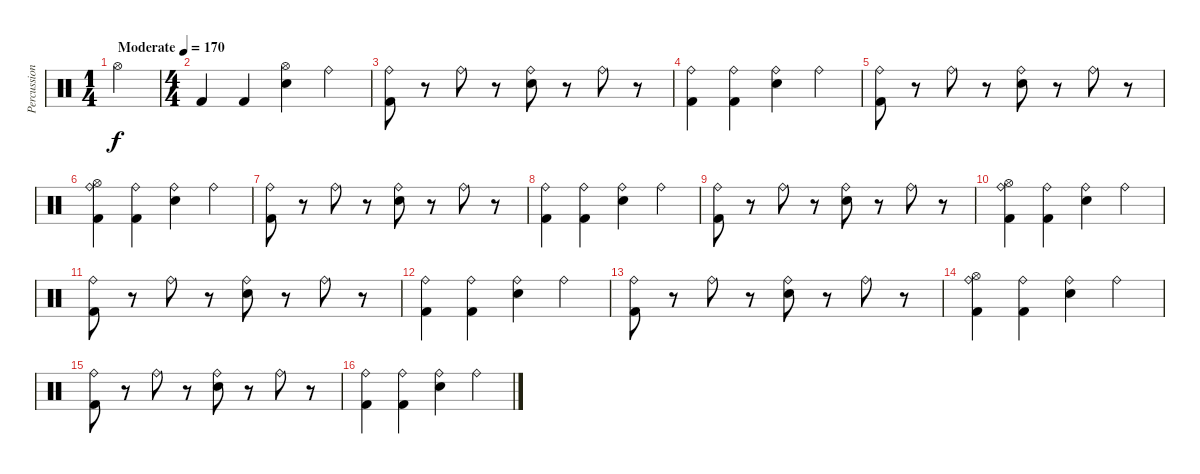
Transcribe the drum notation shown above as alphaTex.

\track ("Percussions" "Percussion") {instrument percussion}
\staff {score}
\articulation defaults
\ts (1 4)
\tempo (170 "Moderate")
\clef neutral
\ks c "Hi-Hat (open)".4{dy f}
|
\ts (4 4)
"Kick (hit) 2".4 "Kick (hit) 2".4 ("Hi-Hat (open)" "Electric Snare (hit)").4 "Ride (bell)".4 |
("Ride (bell)" "Kick (hit) 2").8 r.8 "Ride (bell)".8 r.8 ("Ride (bell)" "Electric Snare (hit)").8 r.8 "Ride (bell)".8 r.8 |
("Ride (bell)" "Kick (hit) 2").4 ("Ride (bell)" "Kick (hit) 2").4 ("Ride (bell)" "Electric Snare (hit)").4 "Ride (bell)".4 |
("Ride (bell)" "Kick (hit) 2").8 r.8 "Ride (bell)".8 r.8 ("Ride (bell)" "Electric Snare (hit)").8 r.8 "Ride (bell)".8 r.8 |
("Hi-Hat (open)" "Ride (bell)" "Kick (hit) 2").4 ("Ride (bell)" "Kick (hit) 2").4 ("Ride (bell)" "Electric Snare (hit)").4 "Ride (bell)".4 |
("Ride (bell)" "Kick (hit) 2").8 r.8 "Ride (bell)".8 r.8 ("Ride (bell)" "Electric Snare (hit)").8 r.8 "Ride (bell)".8 r.8 |
("Ride (bell)" "Kick (hit) 2").4 ("Ride (bell)" "Kick (hit) 2").4 ("Ride (bell)" "Electric Snare (hit)").4 "Ride (bell)".4 |
("Ride (bell)" "Kick (hit) 2").8 r.8 "Ride (bell)".8 r.8 ("Ride (bell)" "Electric Snare (hit)").8 r.8 "Ride (bell)".8 r.8 |
("Hi-Hat (open)" "Ride (bell)" "Kick (hit) 2").4 ("Ride (bell)" "Kick (hit) 2").4 ("Ride (bell)" "Electric Snare (hit)").4 "Ride (bell)".4 |
("Ride (bell)" "Kick (hit) 2").8 r.8 "Ride (bell)".8 r.8 ("Ride (bell)" "Electric Snare (hit)").8 r.8 "Ride (bell)".8 r.8 |
("Ride (bell)" "Kick (hit) 2").4 ("Ride (bell)" "Kick (hit) 2").4 ("Ride (bell)" "Electric Snare (hit)").4 "Ride (bell)".4 |
("Ride (bell)" "Kick (hit) 2").8 r.8 "Ride (bell)".8 r.8 ("Ride (bell)" "Electric Snare (hit)").8 r.8 "Ride (bell)".8 r.8 |
("Hi-Hat (open)" "Ride (bell)" "Kick (hit) 2").4 ("Ride (bell)" "Kick (hit) 2").4 ("Ride (bell)" "Electric Snare (hit)").4 "Ride (bell)".4 |
("Ride (bell)" "Kick (hit) 2").8 r.8 "Ride (bell)".8 r.8 ("Ride (bell)" "Electric Snare (hit)").8 r.8 "Ride (bell)".8 r.8 |
("Ride (bell)" "Kick (hit) 2").4 ("Ride (bell)" "Kick (hit) 2").4 ("Ride (bell)" "Electric Snare (hit)").4 "Ride (bell)".4
